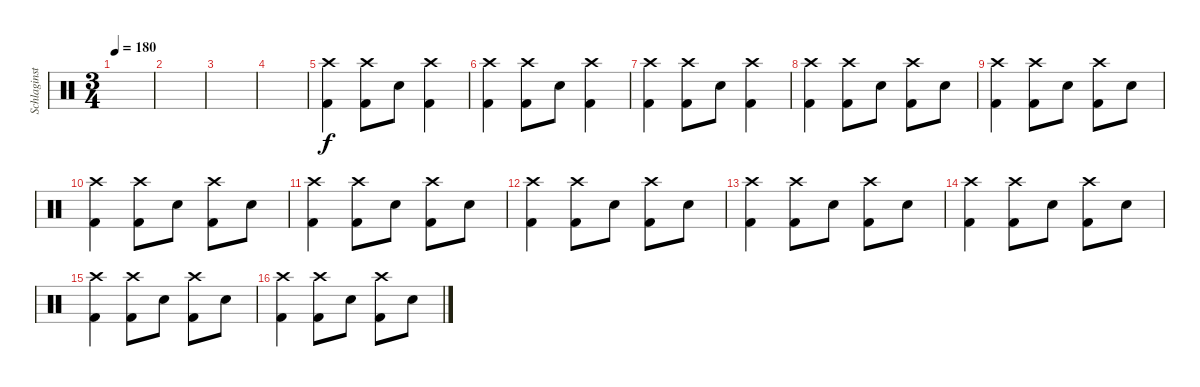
\track ("Schlaginstrumente - Auswahl" "Schlaginst") {instrument percussion}
\staff {score}
\articulation defaults
\ts (3 4)
\tempo 180
\clef neutral
\ks c
|
|
|
|
("Crash high (hit)" "Kick (hit) 2").4 ("Crash high (hit)" "Kick (hit) 2").8 "Snare (hit) 2".8 ("Crash high (hit)" "Kick (hit) 2").4 |
("Crash high (hit)" "Kick (hit) 2").4 ("Crash high (hit)" "Kick (hit) 2").8 "Snare (hit) 2".8 ("Crash high (hit)" "Kick (hit) 2").4 |
("Crash high (hit)" "Kick (hit) 2").4 ("Crash high (hit)" "Kick (hit) 2").8 "Snare (hit) 2".8 ("Crash high (hit)" "Kick (hit) 2").4 |
("Crash high (hit)" "Kick (hit) 2").4 ("Crash high (hit)" "Kick (hit) 2").8 "Snare (hit) 2".8 ("Crash high (hit)" "Kick (hit) 2").8 "Snare (hit) 2".8 |
("Crash high (hit)" "Kick (hit) 2").4 ("Crash high (hit)" "Kick (hit) 2").8 "Snare (hit) 2".8 ("Crash high (hit)" "Kick (hit) 2").8 "Snare (hit) 2".8 |
("Crash high (hit)" "Kick (hit) 2").4 ("Crash high (hit)" "Kick (hit) 2").8 "Snare (hit) 2".8 ("Crash high (hit)" "Kick (hit) 2").8 "Snare (hit) 2".8 |
("Crash high (hit)" "Kick (hit) 2").4 ("Crash high (hit)" "Kick (hit) 2").8 "Snare (hit) 2".8 ("Crash high (hit)" "Kick (hit) 2").8 "Snare (hit) 2".8 |
("Crash high (hit)" "Kick (hit) 2").4 ("Crash high (hit)" "Kick (hit) 2").8 "Snare (hit) 2".8 ("Crash high (hit)" "Kick (hit) 2").8 "Snare (hit) 2".8 |
("Crash high (hit)" "Kick (hit) 2").4 ("Crash high (hit)" "Kick (hit) 2").8 "Snare (hit) 2".8 ("Crash high (hit)" "Kick (hit) 2").8 "Snare (hit) 2".8 |
("Crash high (hit)" "Kick (hit) 2").4 ("Crash high (hit)" "Kick (hit) 2").8 "Snare (hit) 2".8 ("Crash high (hit)" "Kick (hit) 2").8 "Snare (hit) 2".8 |
("Crash high (hit)" "Kick (hit) 2").4 ("Crash high (hit)" "Kick (hit) 2").8 "Snare (hit) 2".8 ("Crash high (hit)" "Kick (hit) 2").8 "Snare (hit) 2".8 |
("Crash high (hit)" "Kick (hit) 2").4 ("Crash high (hit)" "Kick (hit) 2").8 "Snare (hit) 2".8 ("Crash high (hit)" "Kick (hit) 2").8 "Snare (hit) 2".8
